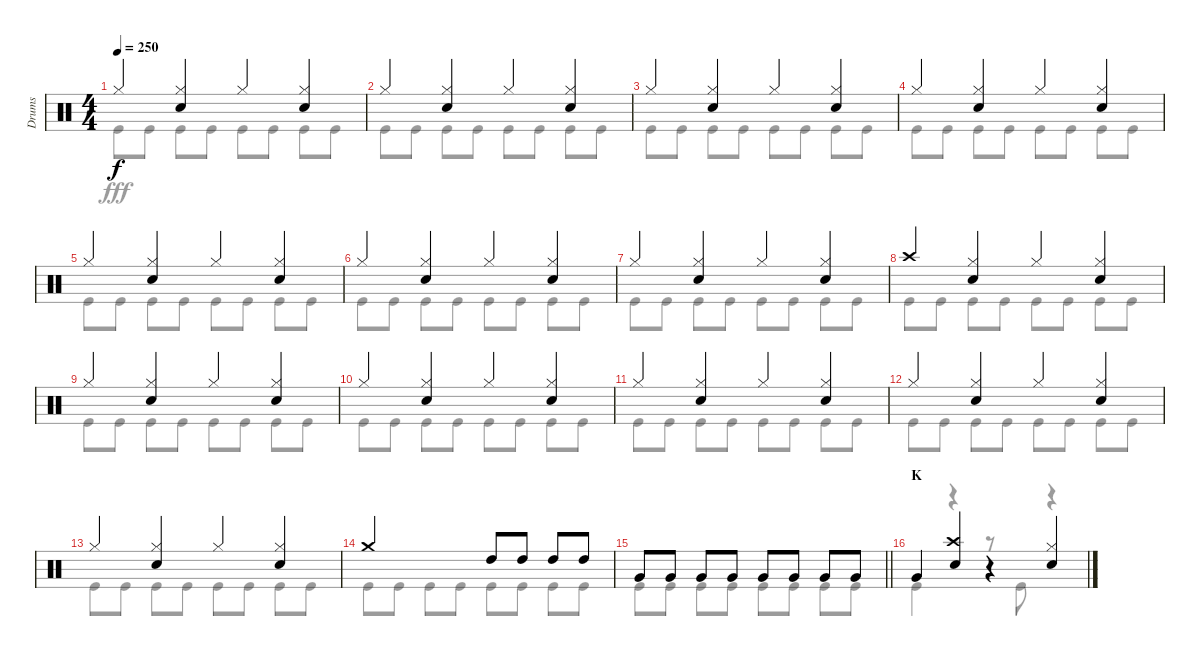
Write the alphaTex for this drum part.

\track ("Drums" "Drums") {instrument percussion}
\staff {score}
\articulation defaults
\voice
\ts (4 4)
\tempo 250
\clef neutral
\ks c "Hi-Hat (closed)".4{dy f}
("Hi-Hat (closed)" "Snare (hit) 2").4 "Hi-Hat (closed)".4 ("Hi-Hat (closed)" "Snare (hit) 2").4 |
"Hi-Hat (closed)".4 ("Hi-Hat (closed)" "Snare (hit) 2").4 "Hi-Hat (closed)".4 ("Hi-Hat (closed)" "Snare (hit) 2").4 |
"Hi-Hat (closed)".4 ("Hi-Hat (closed)" "Snare (hit) 2").4 "Hi-Hat (closed)".4 ("Hi-Hat (closed)" "Snare (hit) 2").4 |
"Hi-Hat (closed)".4 ("Hi-Hat (closed)" "Snare (hit) 2").4 "Hi-Hat (closed)".4 ("Hi-Hat (closed)" "Snare (hit) 2").4 |
"Hi-Hat (closed)".4 ("Hi-Hat (closed)" "Snare (hit) 2").4 "Hi-Hat (closed)".4 ("Hi-Hat (closed)" "Snare (hit) 2").4 |
"Hi-Hat (closed)".4 ("Hi-Hat (closed)" "Snare (hit) 2").4 "Hi-Hat (closed)".4 ("Hi-Hat (closed)" "Snare (hit) 2").4 |
"Hi-Hat (closed)".4 ("Hi-Hat (closed)" "Snare (hit) 2").4 "Hi-Hat (closed)".4 ("Hi-Hat (closed)" "Snare (hit) 2").4 |
"Crash high (hit)".4 ("Hi-Hat (closed)" "Snare (hit) 2").4 "Hi-Hat (closed)".4 ("Hi-Hat (closed)" "Snare (hit) 2").4 |
"Hi-Hat (closed)".4 ("Hi-Hat (closed)" "Snare (hit) 2").4 "Hi-Hat (closed)".4 ("Hi-Hat (closed)" "Snare (hit) 2").4 |
"Hi-Hat (closed)".4 ("Hi-Hat (closed)" "Snare (hit) 2").4 "Hi-Hat (closed)".4 ("Hi-Hat (closed)" "Snare (hit) 2").4 |
"Hi-Hat (closed)".4 ("Hi-Hat (closed)" "Snare (hit) 2").4 "Hi-Hat (closed)".4 ("Hi-Hat (closed)" "Snare (hit) 2").4 |
"Hi-Hat (closed)".4 ("Hi-Hat (closed)" "Snare (hit) 2").4 "Hi-Hat (closed)".4 ("Hi-Hat (closed)" "Snare (hit) 2").4 |
"Hi-Hat (closed)".4 ("Hi-Hat (closed)" "Snare (hit) 2").4 "Hi-Hat (closed)".4 ("Hi-Hat (closed)" "Snare (hit) 2").4 |
"Crash medium (hit)".2 "High Tom (hit)".8 "High Tom (hit)".8 "High Tom (hit)".8 "High Tom (hit)".8 |
\barLineRight lightlight "Very Low Tom (hit)".8 "Very Low Tom (hit)".8 "Very Low Tom (hit)".8 "Very Low Tom (hit)".8 "Very Low Tom (hit)".8 "Very Low Tom (hit)".8 "Very Low Tom (hit)".8 "Very Low Tom (hit)".8
|
\section ("" "K")
"Very Low Tom (hit)".4 ("Crash high (hit)" "Snare (hit) 2").4 r.4 ("Hi-Hat (closed)" "Snare (hit) 2").4
\voice
\clef neutral
\ottava regular
\simile none
\ks c "Kick (hit)".8{dy fff} "Kick (hit)".8 "Kick (hit)".8 "Kick (hit)".8 "Kick (hit)".8 "Kick (hit)".8 "Kick (hit)".8 "Kick (hit)".8
|
"Kick (hit)".8 "Kick (hit)".8 "Kick (hit)".8 "Kick (hit)".8 "Kick (hit)".8 "Kick (hit)".8 "Kick (hit)".8 "Kick (hit)".8 |
"Kick (hit)".8 "Kick (hit)".8 "Kick (hit)".8 "Kick (hit)".8 "Kick (hit)".8 "Kick (hit)".8 "Kick (hit)".8 "Kick (hit)".8 |
"Kick (hit)".8 "Kick (hit)".8 "Kick (hit)".8 "Kick (hit)".8 "Kick (hit)".8 "Kick (hit)".8 "Kick (hit)".8 "Kick (hit)".8 |
"Kick (hit)".8 "Kick (hit)".8 "Kick (hit)".8 "Kick (hit)".8 "Kick (hit)".8 "Kick (hit)".8 "Kick (hit)".8 "Kick (hit)".8 |
"Kick (hit)".8 "Kick (hit)".8 "Kick (hit)".8 "Kick (hit)".8 "Kick (hit)".8 "Kick (hit)".8 "Kick (hit)".8 "Kick (hit)".8 |
"Kick (hit)".8 "Kick (hit)".8 "Kick (hit)".8 "Kick (hit)".8 "Kick (hit)".8 "Kick (hit)".8 "Kick (hit)".8 "Kick (hit)".8 |
"Kick (hit)".8 "Kick (hit)".8 "Kick (hit)".8 "Kick (hit)".8 "Kick (hit)".8 "Kick (hit)".8 "Kick (hit)".8 "Kick (hit)".8 |
"Kick (hit)".8 "Kick (hit)".8 "Kick (hit)".8 "Kick (hit)".8 "Kick (hit)".8 "Kick (hit)".8 "Kick (hit)".8 "Kick (hit)".8 |
"Kick (hit)".8 "Kick (hit)".8 "Kick (hit)".8 "Kick (hit)".8 "Kick (hit)".8 "Kick (hit)".8 "Kick (hit)".8 "Kick (hit)".8 |
"Kick (hit)".8 "Kick (hit)".8 "Kick (hit)".8 "Kick (hit)".8 "Kick (hit)".8 "Kick (hit)".8 "Kick (hit)".8 "Kick (hit)".8 |
"Kick (hit)".8 "Kick (hit)".8 "Kick (hit)".8 "Kick (hit)".8 "Kick (hit)".8 "Kick (hit)".8 "Kick (hit)".8 "Kick (hit)".8 |
"Kick (hit)".8 "Kick (hit)".8 "Kick (hit)".8 "Kick (hit)".8 "Kick (hit)".8 "Kick (hit)".8 "Kick (hit)".8 "Kick (hit)".8 |
"Kick (hit)".8 "Kick (hit)".8 "Kick (hit)".8 "Kick (hit)".8 "Kick (hit)".8 "Kick (hit)".8 "Kick (hit)".8 "Kick (hit)".8 |
\barLineRight lightlight "Kick (hit)".8 "Kick (hit)".8 "Kick (hit)".8 "Kick (hit)".8 "Kick (hit)".8 "Kick (hit)".8 "Kick (hit)".8 "Kick (hit)".8
|
"Kick (hit)".4 r.4 r.8 "Kick (hit)".8 r.4
